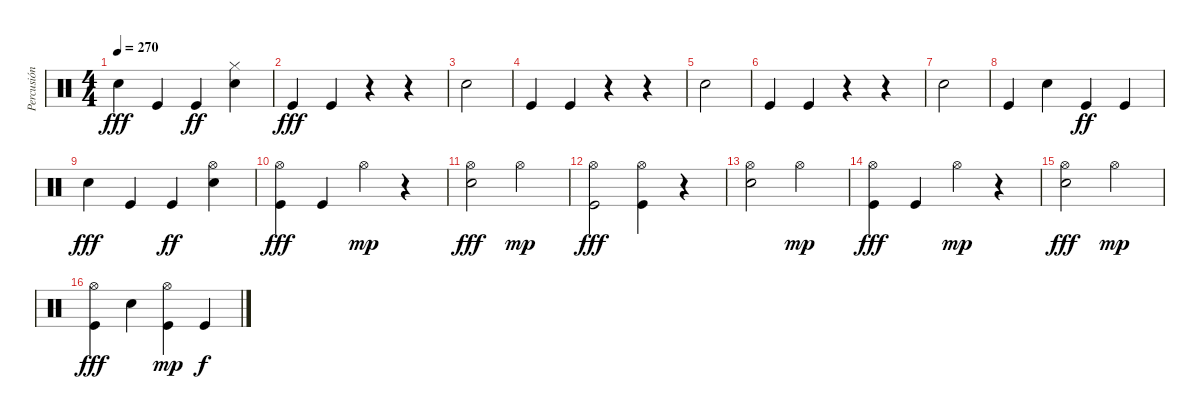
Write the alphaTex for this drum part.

\track ("Percusión" "Percusión") {instrument percussion}
\staff {score}
\articulation defaults
\ts (4 4)
\tempo 270
\clef neutral
\ks c "Snare (hit) 2".4{dy fff} "Kick (hit)".4 "Kick (hit)".4{dy ff}
("Hi-Hat (closed)" "Snare (hit) 2").4 |
"Kick (hit)".4{dy fff} "Kick (hit)".4 r.4 r.4 |
"Snare (hit) 2".2 |
"Kick (hit)".4 "Kick (hit)".4 r.4 r.4 |
"Snare (hit) 2".2 |
"Kick (hit)".4 "Kick (hit)".4 r.4 r.4 |
"Snare (hit) 2".2 |
"Kick (hit)".4 "Snare (hit) 2".4 "Kick (hit)".4{dy ff} "Kick (hit)".4 |
"Snare (hit) 2".4{dy fff} "Kick (hit)".4 "Kick (hit)".4{dy ff} ("Hi-Hat (open)" "Snare (hit) 2").4 |
("Hi-Hat (open)" "Kick (hit)").4{dy fff} "Kick (hit)".4 "Hi-Hat (open)".4{dy mp} r.4 |
("Hi-Hat (open)" "Snare (hit) 2").2{dy fff} "Hi-Hat (open)".2{dy mp} |
("Hi-Hat (open)" "Kick (hit)").2{dy fff} ("Hi-Hat (open)" "Kick (hit)").4 r.4 |
("Hi-Hat (open)" "Snare (hit) 2").2 "Hi-Hat (open)".2{dy mp} |
("Hi-Hat (open)" "Kick (hit)").4{dy fff} "Kick (hit)".4 "Hi-Hat (open)".4{dy mp} r.4 |
("Hi-Hat (open)" "Snare (hit) 2").2{dy fff} "Hi-Hat (open)".2{dy mp} |
("Hi-Hat (open)" "Kick (hit)").4{dy fff} "Snare (hit) 2".4 ("Hi-Hat (open)" "Kick (hit)").4{dy mp} "Kick (hit)".4{dy f}
